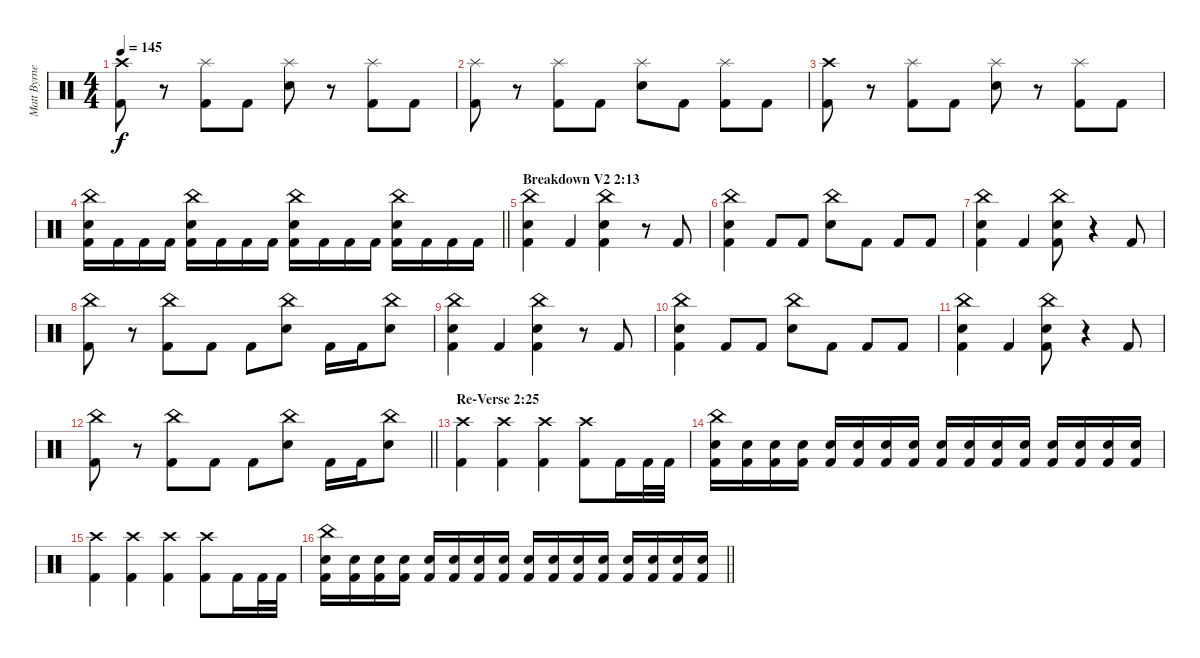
\track ("Matt Byrne, Drums" "Matt Byrne") {instrument percussion}
\staff {score}
\articulation defaults
\ts (4 4)
\tempo 145
\clef neutral
\ks c
("Crash high (hit)" "Kick (hit) 2").8{dy f} r.8 ("Splash (hit)" "Kick (hit) 2").8 "Kick (hit) 2".8 ("Splash (hit)" "Electric Snare (hit)").8 r.8 ("Splash (hit)" "Kick (hit) 2").8 "Kick (hit) 2".8 |
("Splash (hit)" "Kick (hit) 2").8 r.8 ("Splash (hit)" "Kick (hit) 2").8 "Kick (hit) 2".8 ("Splash (hit)" "Electric Snare (hit)").8 "Kick (hit) 2".8 ("Splash (hit)" "Kick (hit) 2").8 "Kick (hit) 2".8 |
("Crash high (hit)" "Kick (hit) 2").8 r.8 ("Splash (hit)" "Kick (hit) 2").8 "Kick (hit) 2".8 ("Splash (hit)" "Electric Snare (hit)").8 r.8 ("Splash (hit)" "Kick (hit) 2").8 "Kick (hit) 2".8 |
\barLineRight lightlight
("China (hit)" "Electric Snare (hit)" "Kick (hit) 2").16 "Kick (hit) 2".16 "Kick (hit) 2".16 "Kick (hit) 2".16 ("China (hit)" "Electric Snare (hit)" "Kick (hit) 2").16 "Kick (hit) 2".16 "Kick (hit) 2".16 "Kick (hit) 2".16 ("China (hit)" "Electric Snare (hit)" "Kick (hit) 2").16 "Kick (hit) 2".16 "Kick (hit) 2".16 "Kick (hit) 2".16 ("China (hit)" "Electric Snare (hit)" "Kick (hit) 2").16 "Kick (hit) 2".16 "Kick (hit) 2".16 "Kick (hit) 2".16 |
\section ("" "Breakdown V2 2:13")
("China (hit)" "Electric Snare (hit)" "Kick (hit) 2").4 "Kick (hit) 2".4 ("China (hit)" "Electric Snare (hit)" "Kick (hit) 2").4 r.8 "Kick (hit) 2".8 |
("China (hit)" "Electric Snare (hit)" "Kick (hit) 2").4 "Kick (hit) 2".8 "Kick (hit) 2".8 ("China (hit)" "Electric Snare (hit)").8 "Kick (hit) 2".8 "Kick (hit) 2".8 "Kick (hit) 2".8 |
("China (hit)" "Electric Snare (hit)" "Kick (hit) 2").4 "Kick (hit) 2".4 ("China (hit)" "Electric Snare (hit)" "Kick (hit) 2").8 r.4 "Kick (hit) 2".8 |
("China (hit)" "Kick (hit) 2").8 r.8 ("China (hit)" "Kick (hit) 2").8 "Kick (hit) 2".8 "Kick (hit) 2".8 ("China (hit)" "Electric Snare (hit)").8 "Kick (hit) 2".16 "Kick (hit) 2".16 ("China (hit)" "Electric Snare (hit)").8 |
("China (hit)" "Electric Snare (hit)" "Kick (hit) 2").4 "Kick (hit) 2".4 ("China (hit)" "Electric Snare (hit)" "Kick (hit) 2").4 r.8 "Kick (hit) 2".8 |
("China (hit)" "Electric Snare (hit)" "Kick (hit) 2").4 "Kick (hit) 2".8 "Kick (hit) 2".8 ("China (hit)" "Electric Snare (hit)").8 "Kick (hit) 2".8 "Kick (hit) 2".8 "Kick (hit) 2".8 |
("China (hit)" "Electric Snare (hit)" "Kick (hit) 2").4 "Kick (hit) 2".4 ("China (hit)" "Electric Snare (hit)" "Kick (hit) 2").8 r.4 "Kick (hit) 2".8 |
\barLineRight lightlight
("China (hit)" "Kick (hit) 2").8 r.8 ("China (hit)" "Kick (hit) 2").8 "Kick (hit) 2".8 "Kick (hit) 2".8 ("China (hit)" "Electric Snare (hit)").8 "Kick (hit) 2".16 "Kick (hit) 2".16 ("China (hit)" "Electric Snare (hit)").8 |
\section ("" "Re-Verse 2:25")
("Crash high (hit)" "Kick (hit) 2").4 ("Crash high (hit)" "Kick (hit) 2").4 ("Crash high (hit)" "Kick (hit) 2").4 ("Crash high (hit)" "Kick (hit) 2").8 "Kick (hit) 2".16 "Kick (hit) 2".32 "Kick (hit) 2".32 |
("China (hit)" "Electric Snare (hit)" "Kick (hit) 2").16 ("Electric Snare (hit)" "Kick (hit) 2").16 ("Electric Snare (hit)" "Kick (hit) 2").16 ("Electric Snare (hit)" "Kick (hit) 2").16 ("Electric Snare (hit)" "Kick (hit) 2").16 ("Electric Snare (hit)" "Kick (hit) 2").16 ("Electric Snare (hit)" "Kick (hit) 2").16 ("Electric Snare (hit)" "Kick (hit) 2").16 ("Electric Snare (hit)" "Kick (hit) 2").16 ("Electric Snare (hit)" "Kick (hit) 2").16 ("Electric Snare (hit)" "Kick (hit) 2").16 ("Electric Snare (hit)" "Kick (hit) 2").16 ("Electric Snare (hit)" "Kick (hit) 2").16 ("Electric Snare (hit)" "Kick (hit) 2").16 ("Electric Snare (hit)" "Kick (hit) 2").16 ("Electric Snare (hit)" "Kick (hit) 2").16 |
("Crash high (hit)" "Kick (hit) 2").4 ("Crash high (hit)" "Kick (hit) 2").4 ("Crash high (hit)" "Kick (hit) 2").4 ("Crash high (hit)" "Kick (hit) 2").8 "Kick (hit) 2".16 "Kick (hit) 2".32 "Kick (hit) 2".32 |
\barLineRight lightlight
("China (hit)" "Electric Snare (hit)" "Kick (hit) 2").16 ("Electric Snare (hit)" "Kick (hit) 2").16 ("Electric Snare (hit)" "Kick (hit) 2").16 ("Electric Snare (hit)" "Kick (hit) 2").16 ("Electric Snare (hit)" "Kick (hit) 2").16 ("Electric Snare (hit)" "Kick (hit) 2").16 ("Electric Snare (hit)" "Kick (hit) 2").16 ("Electric Snare (hit)" "Kick (hit) 2").16 ("Electric Snare (hit)" "Kick (hit) 2").16 ("Electric Snare (hit)" "Kick (hit) 2").16 ("Electric Snare (hit)" "Kick (hit) 2").16 ("Electric Snare (hit)" "Kick (hit) 2").16 ("Electric Snare (hit)" "Kick (hit) 2").16 ("Electric Snare (hit)" "Kick (hit) 2").16 ("Electric Snare (hit)" "Kick (hit) 2").16 ("Electric Snare (hit)" "Kick (hit) 2").16
